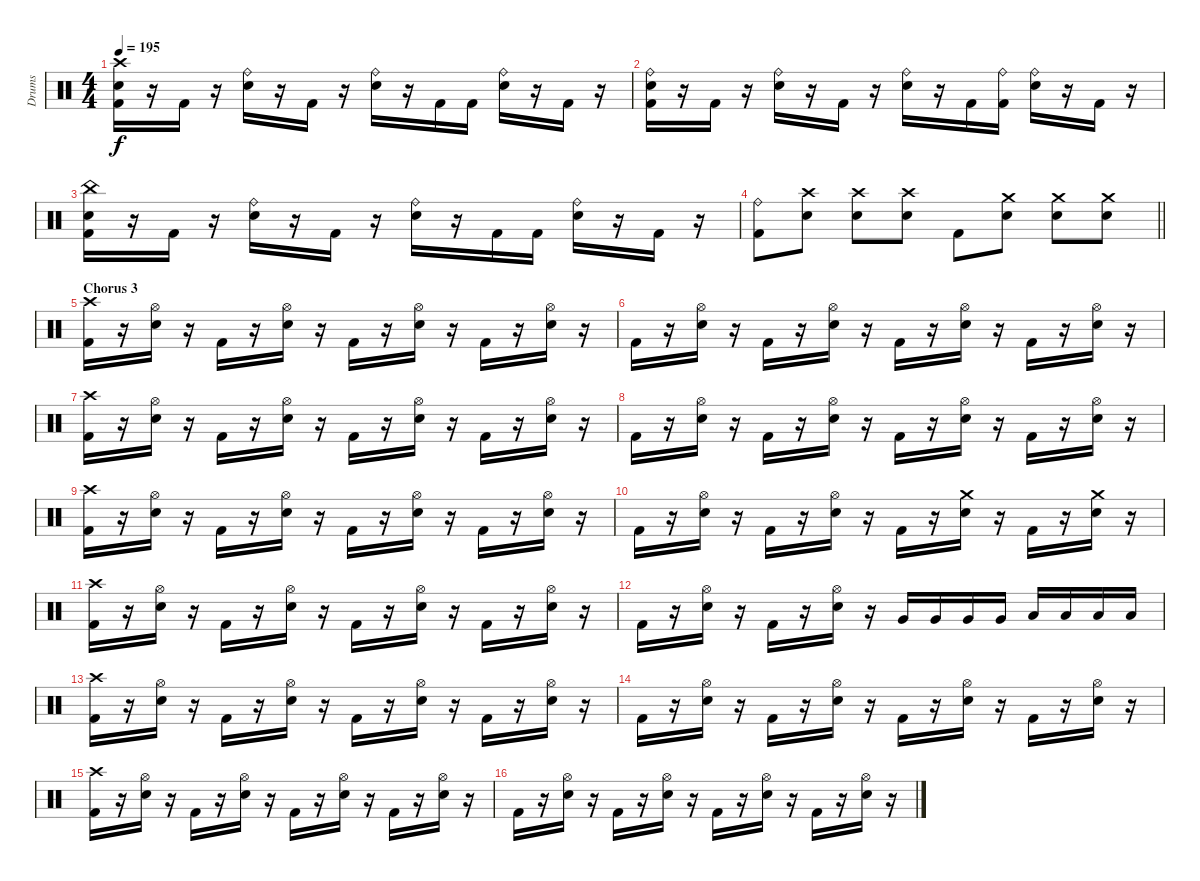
\track ("Drums" "Drums") {instrument percussion}
\staff {score}
\articulation defaults
\ts (4 4)
\tempo 195
\clef neutral
\ks c
("Crash high (hit)" "Electric Snare (hit)" "Kick (hit) 2").16{dy f} r.16 "Kick (hit) 2".16 r.16 ("Ride (bell)" "Electric Snare (hit)").16 r.16 "Kick (hit) 2".16 r.16 ("Ride (bell)" "Electric Snare (hit)").16 r.16 "Kick (hit) 2".16 "Kick (hit) 2".16 ("Ride (bell)" "Electric Snare (hit)").16 r.16 "Kick (hit) 2".16 r.16 |
("Ride (bell)" "Electric Snare (hit)" "Kick (hit) 2").16 r.16 "Kick (hit) 2".16 r.16 ("Ride (bell)" "Electric Snare (hit)").16 r.16 "Kick (hit) 2".16 r.16 ("Ride (bell)" "Electric Snare (hit)").16 r.16 "Kick (hit) 2".16 ("Ride (bell)" "Kick (hit) 2").16 ("Ride (bell)" "Electric Snare (hit)").16 r.16 "Kick (hit) 2".16 r.16 |
("China (hit)" "Electric Snare (hit)" "Kick (hit) 2").16 r.16 "Kick (hit) 2".16 r.16 ("Ride (bell)" "Electric Snare (hit)").16 r.16 "Kick (hit) 2".16 r.16 ("Ride (bell)" "Electric Snare (hit)").16 r.16 "Kick (hit) 2".16 "Kick (hit) 2".16 ("Ride (bell)" "Electric Snare (hit)").16 r.16 "Kick (hit) 2".16 r.16 |
\barLineRight lightlight
("Ride (bell)" "Kick (hit) 2").8 ("Crash high (hit)" "Electric Snare (hit)").8 ("Crash high (hit)" "Electric Snare (hit)").8 ("Crash high (hit)" "Electric Snare (hit)").8 "Kick (hit) 2".8 ("Crash medium (hit)" "Electric Snare (hit)").8 ("Crash medium (hit)" "Electric Snare (hit)").8 ("Crash medium (hit)" "Electric Snare (hit)").8 |
\section ("" "Chorus 3")
("Crash high (hit)" "Kick (hit) 2").16 r.16 ("Hi-Hat (open)" "Electric Snare (hit)").16 r.16 "Kick (hit) 2".16 r.16 ("Hi-Hat (open)" "Electric Snare (hit)").16 r.16 "Kick (hit) 2".16 r.16 ("Hi-Hat (open)" "Electric Snare (hit)").16 r.16 "Kick (hit) 2".16 r.16 ("Hi-Hat (open)" "Electric Snare (hit)").16 r.16 |
"Kick (hit) 2".16 r.16 ("Hi-Hat (open)" "Electric Snare (hit)").16 r.16 "Kick (hit) 2".16 r.16 ("Hi-Hat (open)" "Electric Snare (hit)").16 r.16 "Kick (hit) 2".16 r.16 ("Hi-Hat (open)" "Electric Snare (hit)").16 r.16 "Kick (hit) 2".16 r.16 ("Hi-Hat (open)" "Electric Snare (hit)").16 r.16 |
("Crash high (hit)" "Kick (hit) 2").16 r.16 ("Hi-Hat (open)" "Electric Snare (hit)").16 r.16 "Kick (hit) 2".16 r.16 ("Hi-Hat (open)" "Electric Snare (hit)").16 r.16 "Kick (hit) 2".16 r.16 ("Hi-Hat (open)" "Electric Snare (hit)").16 r.16 "Kick (hit) 2".16 r.16 ("Hi-Hat (open)" "Electric Snare (hit)").16 r.16 |
"Kick (hit) 2".16 r.16 ("Hi-Hat (open)" "Electric Snare (hit)").16 r.16 "Kick (hit) 2".16 r.16 ("Hi-Hat (open)" "Electric Snare (hit)").16 r.16 "Kick (hit) 2".16 r.16 ("Hi-Hat (open)" "Electric Snare (hit)").16 r.16 "Kick (hit) 2".16 r.16 ("Hi-Hat (open)" "Electric Snare (hit)").16 r.16 |
("Crash high (hit)" "Kick (hit) 2").16 r.16 ("Hi-Hat (open)" "Electric Snare (hit)").16 r.16 "Kick (hit) 2".16 r.16 ("Hi-Hat (open)" "Electric Snare (hit)").16 r.16 "Kick (hit) 2".16 r.16 ("Hi-Hat (open)" "Electric Snare (hit)").16 r.16 "Kick (hit) 2".16 r.16 ("Hi-Hat (open)" "Electric Snare (hit)").16 r.16 |
"Kick (hit) 2".16 r.16 ("Hi-Hat (open)" "Electric Snare (hit)").16 r.16 "Kick (hit) 2".16 r.16 ("Hi-Hat (open)" "Electric Snare (hit)").16 r.16 "Kick (hit) 2".16 r.16 ("Crash medium (hit)" "Electric Snare (hit)").16 r.16 "Kick (hit) 2".16 r.16 ("Crash medium (hit)" "Electric Snare (hit)").16 r.16 |
("Crash high (hit)" "Kick (hit) 2").16 r.16 ("Hi-Hat (open)" "Electric Snare (hit)").16 r.16 "Kick (hit) 2".16 r.16 ("Hi-Hat (open)" "Electric Snare (hit)").16 r.16 "Kick (hit) 2".16 r.16 ("Hi-Hat (open)" "Electric Snare (hit)").16 r.16 "Kick (hit) 2".16 r.16 ("Hi-Hat (open)" "Electric Snare (hit)").16 r.16 |
"Kick (hit) 2".16 r.16 ("Hi-Hat (open)" "Electric Snare (hit)").16 r.16 "Kick (hit) 2".16 r.16 ("Hi-Hat (open)" "Electric Snare (hit)").16 r.16 "Very Low Tom (hit)".16 "Very Low Tom (hit)".16 "Very Low Tom (hit)".16 "Very Low Tom (hit)".16 "Low Floor Tom (hit)".16 "Low Floor Tom (hit)".16 "Low Floor Tom (hit)".16 "Low Floor Tom (hit)".16 |
("Crash high (hit)" "Kick (hit) 2").16 r.16 ("Hi-Hat (open)" "Electric Snare (hit)").16 r.16 "Kick (hit) 2".16 r.16 ("Hi-Hat (open)" "Electric Snare (hit)").16 r.16 "Kick (hit) 2".16 r.16 ("Hi-Hat (open)" "Electric Snare (hit)").16 r.16 "Kick (hit) 2".16 r.16 ("Hi-Hat (open)" "Electric Snare (hit)").16 r.16 |
"Kick (hit) 2".16 r.16 ("Hi-Hat (open)" "Electric Snare (hit)").16 r.16 "Kick (hit) 2".16 r.16 ("Hi-Hat (open)" "Electric Snare (hit)").16 r.16 "Kick (hit) 2".16 r.16 ("Hi-Hat (open)" "Electric Snare (hit)").16 r.16 "Kick (hit) 2".16 r.16 ("Hi-Hat (open)" "Electric Snare (hit)").16 r.16 |
("Crash high (hit)" "Kick (hit) 2").16 r.16 ("Hi-Hat (open)" "Electric Snare (hit)").16 r.16 "Kick (hit) 2".16 r.16 ("Hi-Hat (open)" "Electric Snare (hit)").16 r.16 "Kick (hit) 2".16 r.16 ("Hi-Hat (open)" "Electric Snare (hit)").16 r.16 "Kick (hit) 2".16 r.16 ("Hi-Hat (open)" "Electric Snare (hit)").16 r.16 |
"Kick (hit) 2".16 r.16 ("Hi-Hat (open)" "Electric Snare (hit)").16 r.16 "Kick (hit) 2".16 r.16 ("Hi-Hat (open)" "Electric Snare (hit)").16 r.16 "Kick (hit) 2".16 r.16 ("Hi-Hat (open)" "Electric Snare (hit)").16 r.16 "Kick (hit) 2".16 r.16 ("Hi-Hat (open)" "Electric Snare (hit)").16 r.16
